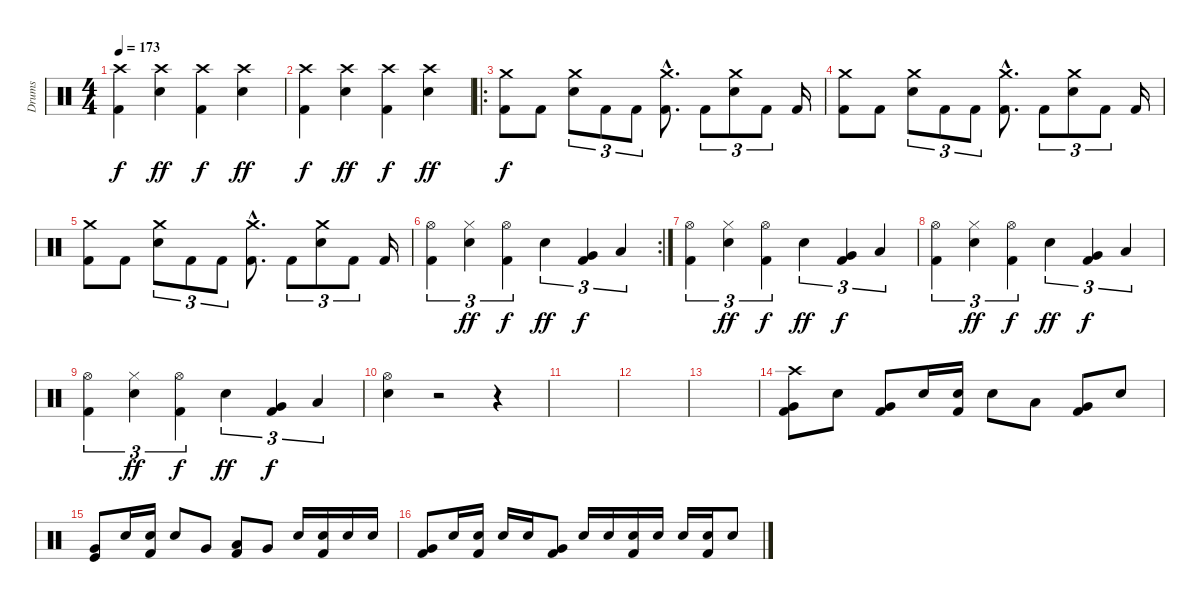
\track ("Drums" "Drums") {instrument percussion}
\staff {score}
\articulation defaults
\ts (4 4)
\tempo 173
\clef neutral
\ks c
("Crash high (hit)" "Kick (hit) 2").4{dy f} ("Crash high (hit)" "Electric Snare (hit)").4{dy ff} ("Crash high (hit)" "Kick (hit) 2").4{dy f} ("Crash high (hit)" "Electric Snare (hit)").4{dy ff} |
("Crash high (hit)" "Kick (hit) 2").4{dy f} ("Crash high (hit)" "Electric Snare (hit)").4{dy ff} ("Crash high (hit)" "Kick (hit) 2").4{dy f} ("Crash high (hit)" "Electric Snare (hit)").4{dy ff} |
\ro
("Kick (hit) 2" "Crash medium (hit)").8{dy f} "Kick (hit) 2".8 ("Electric Snare (hit)" "Crash medium (hit)").8{tu (3 2)} "Kick (hit) 2".8{tu (3 2)} "Kick (hit) 2".8{tu (3 2)} ("Kick (hit) 2"{hac} "Crash medium (hit)"{hac}).8{d} "Kick (hit) 2".8{tu (3 2)} ("Electric Snare (hit)" "Crash medium (hit)").8{tu (3 2)} "Kick (hit) 2".8{tu (3 2)} "Kick (hit) 2".16 |
("Kick (hit) 2" "Crash medium (hit)").8 "Kick (hit) 2".8 ("Electric Snare (hit)" "Crash medium (hit)").8{tu (3 2)} "Kick (hit) 2".8{tu (3 2)} "Kick (hit) 2".8{tu (3 2)} ("Kick (hit) 2"{hac} "Crash medium (hit)"{hac}).8{d} "Kick (hit) 2".8{tu (3 2)} ("Electric Snare (hit)" "Crash medium (hit)").8{tu (3 2)} "Kick (hit) 2".8{tu (3 2)} "Kick (hit) 2".16 |
("Kick (hit) 2" "Crash medium (hit)").8 "Kick (hit) 2".8 ("Electric Snare (hit)" "Crash medium (hit)").8{tu (3 2)} "Kick (hit) 2".8{tu (3 2)} "Kick (hit) 2".8{tu (3 2)} ("Kick (hit) 2"{hac} "Crash medium (hit)"{hac}).8{d} "Kick (hit) 2".8{tu (3 2)} ("Electric Snare (hit)" "Crash medium (hit)").8{tu (3 2)} "Kick (hit) 2".8{tu (3 2)} "Kick (hit) 2".16 |
\rc 2
("Hi-Hat (open)" "Kick (hit) 2").4{tu (3 2)} ("Hi-Hat (closed)" "Electric Snare (hit)").4{tu (3 2) dy ff} ("Hi-Hat (open)" "Kick (hit) 2").4{tu (3 2) dy f} "Electric Snare (hit)".4{tu (3 2) dy ff} ("Kick (hit) 2" "Very Low Tom (hit)").4{tu (3 2) dy f} "Low Floor Tom (hit)".4{tu (3 2)} |
("Hi-Hat (open)" "Kick (hit) 2").4{tu (3 2)} ("Hi-Hat (closed)" "Electric Snare (hit)").4{tu (3 2) dy ff} ("Hi-Hat (open)" "Kick (hit) 2").4{tu (3 2) dy f} "Electric Snare (hit)".4{tu (3 2) dy ff} ("Kick (hit) 2" "Very Low Tom (hit)").4{tu (3 2) dy f} "Low Floor Tom (hit)".4{tu (3 2)} |
("Hi-Hat (open)" "Kick (hit) 2").4{tu (3 2)} ("Hi-Hat (closed)" "Electric Snare (hit)").4{tu (3 2) dy ff} ("Hi-Hat (open)" "Kick (hit) 2").4{tu (3 2) dy f} "Electric Snare (hit)".4{tu (3 2) dy ff} ("Kick (hit) 2" "Very Low Tom (hit)").4{tu (3 2) dy f} "Low Floor Tom (hit)".4{tu (3 2)} |
("Hi-Hat (open)" "Kick (hit) 2").4{tu (3 2)} ("Hi-Hat (closed)" "Electric Snare (hit)").4{tu (3 2) dy ff} ("Hi-Hat (open)" "Kick (hit) 2").4{tu (3 2) dy f} "Electric Snare (hit)".4{tu (3 2) dy ff} ("Kick (hit) 2" "Very Low Tom (hit)").4{tu (3 2) dy f} "Low Floor Tom (hit)".4{tu (3 2)} |
("Hi-Hat (open)" "Electric Snare (hit)").4 r.2 r.4 |
|
|
|
("Crash high (hit)" "Very Low Tom (hit)" "Kick (hit) 2").8 "Electric Snare (hit)".8 ("Very Low Tom (hit)" "Kick (hit) 2").8 "Electric Snare (hit)".16 ("Electric Snare (hit)" "Kick (hit) 2").16 "Electric Snare (hit)".8 "Low Tom (hit)".8 ("Very Low Tom (hit)" "Kick (hit) 2").8 "Electric Snare (hit)".8 |
("Very Low Tom (hit)" "Kick (hit)").8 "Electric Snare (hit)".16 ("Electric Snare (hit)" "Kick (hit) 2").16 "Electric Snare (hit)".8 "Very Low Tom (hit)".8 ("Low Tom (hit)" "Kick (hit) 2").8 "Very Low Tom (hit)".8 "Electric Snare (hit)".16 ("Electric Snare (hit)" "Kick (hit) 2").16 "Electric Snare (hit)".16 "Electric Snare (hit)".16 |
("Very Low Tom (hit)" "Kick (hit) 2").8 "Electric Snare (hit)".16 ("Electric Snare (hit)" "Kick (hit) 2").16 "Electric Snare (hit)".16 "Electric Snare (hit)".16 ("Very Low Tom (hit)" "Kick (hit) 2").8 "Electric Snare (hit)".16 "Electric Snare (hit)".16 ("Electric Snare (hit)" "Kick (hit) 2").16 "Electric Snare (hit)".16 "Electric Snare (hit)".16 ("Electric Snare (hit)" "Kick (hit) 2").16 "Electric Snare (hit)".8
